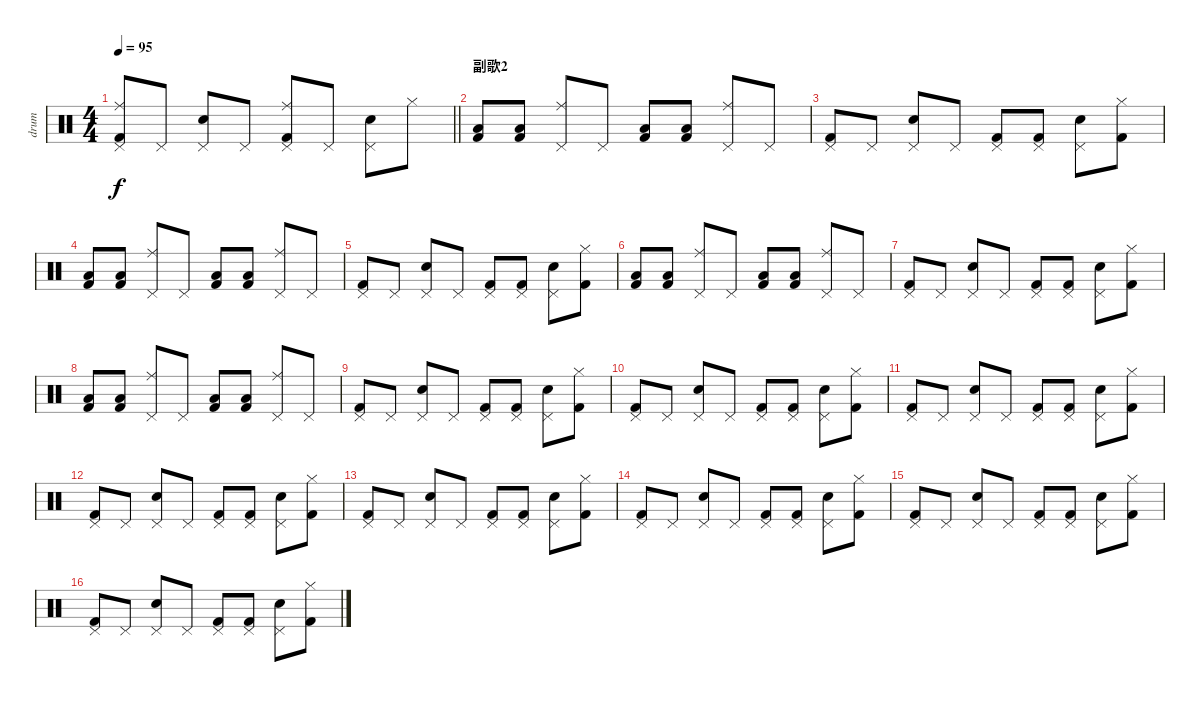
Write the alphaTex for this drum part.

\track ("drum" "drum") {instrument percussion}
\staff {score}
\articulation defaults
\ts (4 4)
\tempo 95
\clef neutral
\barLineRight lightlight
\ks c
("Pedal Hi-Hat (hit)" "Kick (hit) 2" "Ride (middle)").8{dy f} "Pedal Hi-Hat (hit)".8 ("Pedal Hi-Hat (hit)" "Hand Clap (hit)").8 "Pedal Hi-Hat (hit)".8 ("Pedal Hi-Hat (hit)" "Kick (hit) 2" "Ride (middle)").8 "Pedal Hi-Hat (hit)".8 ("Pedal Hi-Hat (hit)" "Hand Clap (hit)").8 "Hi-Hat (closed)".8 |
\section ("" "副歌2")
("Kick (hit) 2" "Low Tom (hit)").8 ("Kick (hit) 2" "Low Tom (hit)").8 ("Pedal Hi-Hat (hit)" "Ride (middle)").8 "Pedal Hi-Hat (hit)".8 ("Kick (hit) 2" "Low Tom (hit)").8 ("Kick (hit) 2" "Low Tom (hit)").8 ("Pedal Hi-Hat (hit)" "Ride (middle)").8 "Pedal Hi-Hat (hit)".8 |
("Pedal Hi-Hat (hit)" "Kick (hit) 2").8 "Pedal Hi-Hat (hit)".8 ("Pedal Hi-Hat (hit)" "Hand Clap (hit)").8 "Pedal Hi-Hat (hit)".8 ("Pedal Hi-Hat (hit)" "Kick (hit) 2").8 ("Pedal Hi-Hat (hit)" "Kick (hit) 2").8 ("Pedal Hi-Hat (hit)" "Hand Clap (hit)").8 ("Hi-Hat (closed)" "Kick (hit) 2").8 |
("Kick (hit) 2" "Low Tom (hit)").8 ("Kick (hit) 2" "Low Tom (hit)").8 ("Pedal Hi-Hat (hit)" "Ride (middle)").8 "Pedal Hi-Hat (hit)".8 ("Kick (hit) 2" "Low Tom (hit)").8 ("Kick (hit) 2" "Low Tom (hit)").8 ("Pedal Hi-Hat (hit)" "Ride (middle)").8 "Pedal Hi-Hat (hit)".8 |
("Pedal Hi-Hat (hit)" "Kick (hit) 2").8 "Pedal Hi-Hat (hit)".8 ("Pedal Hi-Hat (hit)" "Hand Clap (hit)").8 "Pedal Hi-Hat (hit)".8 ("Pedal Hi-Hat (hit)" "Kick (hit) 2").8 ("Pedal Hi-Hat (hit)" "Kick (hit) 2").8 ("Pedal Hi-Hat (hit)" "Hand Clap (hit)").8 ("Hi-Hat (closed)" "Kick (hit) 2").8 |
("Kick (hit) 2" "Low Tom (hit)").8 ("Kick (hit) 2" "Low Tom (hit)").8 ("Pedal Hi-Hat (hit)" "Ride (middle)").8 "Pedal Hi-Hat (hit)".8 ("Kick (hit) 2" "Low Tom (hit)").8 ("Kick (hit) 2" "Low Tom (hit)").8 ("Pedal Hi-Hat (hit)" "Ride (middle)").8 "Pedal Hi-Hat (hit)".8 |
("Pedal Hi-Hat (hit)" "Kick (hit) 2").8 "Pedal Hi-Hat (hit)".8 ("Pedal Hi-Hat (hit)" "Hand Clap (hit)").8 "Pedal Hi-Hat (hit)".8 ("Pedal Hi-Hat (hit)" "Kick (hit) 2").8 ("Pedal Hi-Hat (hit)" "Kick (hit) 2").8 ("Pedal Hi-Hat (hit)" "Hand Clap (hit)").8 ("Hi-Hat (closed)" "Kick (hit) 2").8 |
("Kick (hit) 2" "Low Tom (hit)").8 ("Kick (hit) 2" "Low Tom (hit)").8 ("Pedal Hi-Hat (hit)" "Ride (middle)").8 "Pedal Hi-Hat (hit)".8 ("Kick (hit) 2" "Low Tom (hit)").8 ("Kick (hit) 2" "Low Tom (hit)").8 ("Pedal Hi-Hat (hit)" "Ride (middle)").8 "Pedal Hi-Hat (hit)".8 |
("Pedal Hi-Hat (hit)" "Kick (hit) 2").8 "Pedal Hi-Hat (hit)".8 ("Pedal Hi-Hat (hit)" "Hand Clap (hit)").8 "Pedal Hi-Hat (hit)".8 ("Pedal Hi-Hat (hit)" "Kick (hit) 2").8 ("Pedal Hi-Hat (hit)" "Kick (hit) 2").8 ("Pedal Hi-Hat (hit)" "Hand Clap (hit)").8 ("Hi-Hat (closed)" "Kick (hit) 2").8 |
("Pedal Hi-Hat (hit)" "Kick (hit) 2").8 "Pedal Hi-Hat (hit)".8 ("Pedal Hi-Hat (hit)" "Hand Clap (hit)").8 "Pedal Hi-Hat (hit)".8 ("Pedal Hi-Hat (hit)" "Kick (hit) 2").8 ("Pedal Hi-Hat (hit)" "Kick (hit) 2").8 ("Pedal Hi-Hat (hit)" "Hand Clap (hit)").8 ("Hi-Hat (closed)" "Kick (hit) 2").8 |
("Pedal Hi-Hat (hit)" "Kick (hit) 2").8 "Pedal Hi-Hat (hit)".8 ("Pedal Hi-Hat (hit)" "Hand Clap (hit)").8 "Pedal Hi-Hat (hit)".8 ("Pedal Hi-Hat (hit)" "Kick (hit) 2").8 ("Pedal Hi-Hat (hit)" "Kick (hit) 2").8 ("Pedal Hi-Hat (hit)" "Hand Clap (hit)").8 ("Hi-Hat (closed)" "Kick (hit) 2").8 |
("Pedal Hi-Hat (hit)" "Kick (hit) 2").8 "Pedal Hi-Hat (hit)".8 ("Pedal Hi-Hat (hit)" "Hand Clap (hit)").8 "Pedal Hi-Hat (hit)".8 ("Pedal Hi-Hat (hit)" "Kick (hit) 2").8 ("Pedal Hi-Hat (hit)" "Kick (hit) 2").8 ("Pedal Hi-Hat (hit)" "Hand Clap (hit)").8 ("Hi-Hat (closed)" "Kick (hit) 2").8 |
("Pedal Hi-Hat (hit)" "Kick (hit) 2").8 "Pedal Hi-Hat (hit)".8 ("Pedal Hi-Hat (hit)" "Hand Clap (hit)").8 "Pedal Hi-Hat (hit)".8 ("Pedal Hi-Hat (hit)" "Kick (hit) 2").8 ("Pedal Hi-Hat (hit)" "Kick (hit) 2").8 ("Pedal Hi-Hat (hit)" "Hand Clap (hit)").8 ("Hi-Hat (closed)" "Kick (hit) 2").8 |
("Pedal Hi-Hat (hit)" "Kick (hit) 2").8 "Pedal Hi-Hat (hit)".8 ("Pedal Hi-Hat (hit)" "Hand Clap (hit)").8 "Pedal Hi-Hat (hit)".8 ("Pedal Hi-Hat (hit)" "Kick (hit) 2").8 ("Pedal Hi-Hat (hit)" "Kick (hit) 2").8 ("Pedal Hi-Hat (hit)" "Hand Clap (hit)").8 ("Hi-Hat (closed)" "Kick (hit) 2").8 |
("Pedal Hi-Hat (hit)" "Kick (hit) 2").8 "Pedal Hi-Hat (hit)".8 ("Pedal Hi-Hat (hit)" "Hand Clap (hit)").8 "Pedal Hi-Hat (hit)".8 ("Pedal Hi-Hat (hit)" "Kick (hit) 2").8 ("Pedal Hi-Hat (hit)" "Kick (hit) 2").8 ("Pedal Hi-Hat (hit)" "Hand Clap (hit)").8 ("Hi-Hat (closed)" "Kick (hit) 2").8 |
("Pedal Hi-Hat (hit)" "Kick (hit) 2").8 "Pedal Hi-Hat (hit)".8 ("Pedal Hi-Hat (hit)" "Hand Clap (hit)").8 "Pedal Hi-Hat (hit)".8 ("Pedal Hi-Hat (hit)" "Kick (hit) 2").8 ("Pedal Hi-Hat (hit)" "Kick (hit) 2").8 ("Pedal Hi-Hat (hit)" "Hand Clap (hit)").8 ("Hi-Hat (closed)" "Kick (hit) 2").8
